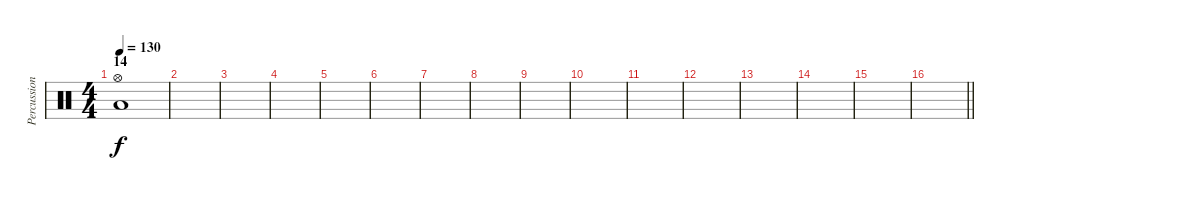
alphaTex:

\track ("Percussioni" "Percussion") {instrument percussion}
\staff {score}
\articulation defaults
\ts (4 4)
\section ("" "14")
\tempo 130
\clef neutral
\ks c
("Hi-Hat (open)" "Low Tom (hit)").1{dy f} |
|
|
|
|
|
|
|
|
|
|
|
|
|
|
\barLineRight lightlight
